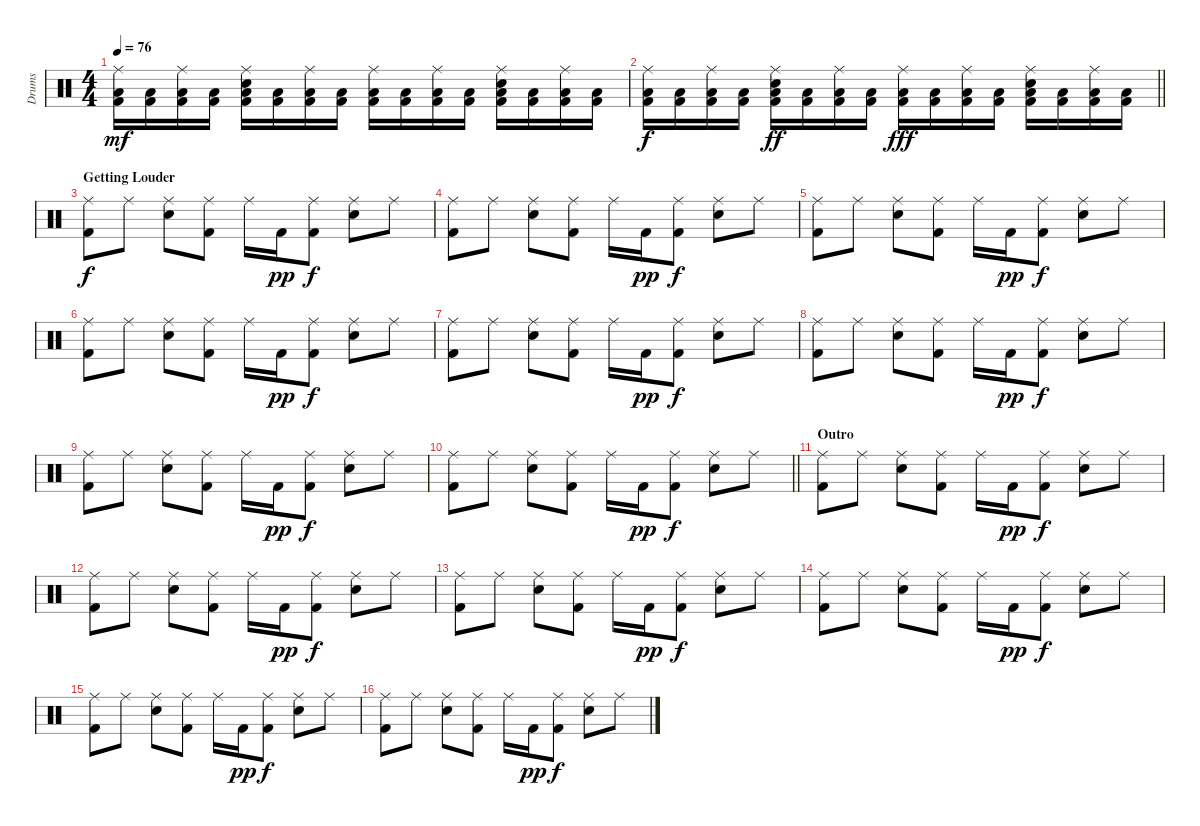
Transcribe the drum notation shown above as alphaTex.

\track ("Drums" "Drums") {instrument percussion}
\staff {score}
\articulation defaults
\ts (4 4)
\tempo 76
\clef neutral
\ks c
("Ride (middle)" "Low Floor Tom (hit)" "Kick (hit) 2").16{dy mf} ("Low Floor Tom (hit)" "Kick (hit) 2").16 ("Ride (middle)" "Low Floor Tom (hit)" "Kick (hit) 2").16 ("Low Floor Tom (hit)" "Kick (hit) 2").16 ("Electric Snare (hit)" "Ride (middle)" "Low Floor Tom (hit)" "Kick (hit) 2").16 ("Low Floor Tom (hit)" "Kick (hit) 2").16 ("Ride (middle)" "Low Floor Tom (hit)" "Kick (hit) 2").16 ("Low Floor Tom (hit)" "Kick (hit) 2").16 ("Ride (middle)" "Low Floor Tom (hit)" "Kick (hit) 2").16 ("Low Floor Tom (hit)" "Kick (hit) 2").16 ("Ride (middle)" "Low Floor Tom (hit)" "Kick (hit) 2").16 ("Low Floor Tom (hit)" "Kick (hit) 2").16 ("Electric Snare (hit)" "Ride (middle)" "Low Floor Tom (hit)" "Kick (hit) 2").16 ("Low Floor Tom (hit)" "Kick (hit) 2").16 ("Ride (middle)" "Low Floor Tom (hit)" "Kick (hit) 2").16 ("Low Floor Tom (hit)" "Kick (hit) 2").16 |
\barLineRight lightlight
("Ride (middle)" "Low Floor Tom (hit)" "Kick (hit) 2").16{dy f} ("Low Floor Tom (hit)" "Kick (hit) 2").16 ("Ride (middle)" "Low Floor Tom (hit)" "Kick (hit) 2").16 ("Low Floor Tom (hit)" "Kick (hit) 2").16 ("Electric Snare (hit)" "Ride (middle)" "Low Floor Tom (hit)" "Kick (hit) 2").16{dy ff} ("Low Floor Tom (hit)" "Kick (hit) 2").16 ("Ride (middle)" "Low Floor Tom (hit)" "Kick (hit) 2").16 ("Low Floor Tom (hit)" "Kick (hit) 2").16 ("Ride (middle)" "Low Floor Tom (hit)" "Kick (hit) 2").16{dy fff} ("Low Floor Tom (hit)" "Kick (hit) 2").16 ("Ride (middle)" "Low Floor Tom (hit)" "Kick (hit) 2").16 ("Low Floor Tom (hit)" "Kick (hit) 2").16 ("Electric Snare (hit)" "Ride (middle)" "Low Floor Tom (hit)" "Kick (hit) 2").16 ("Low Floor Tom (hit)" "Kick (hit) 2").16 ("Ride (middle)" "Low Floor Tom (hit)" "Kick (hit) 2").16 ("Low Floor Tom (hit)" "Kick (hit) 2").16 |
\section ("" "Getting Louder")
("Ride (middle)" "Kick (hit) 2").8{dy f volume 10} "Ride (middle)".8 ("Electric Snare (hit)" "Ride (middle)").8 ("Ride (middle)" "Kick (hit) 2").8 "Ride (middle)".16 "Kick (hit) 2".16{dy pp} ("Ride (middle)" "Kick (hit) 2").8{dy f} ("Electric Snare (hit)" "Ride (middle)").8 "Ride (middle)".8 |
("Ride (middle)" "Kick (hit) 2").8 "Ride (middle)".8 ("Electric Snare (hit)" "Ride (middle)").8 ("Ride (middle)" "Kick (hit) 2").8 "Ride (middle)".16 "Kick (hit) 2".16{dy pp} ("Ride (middle)" "Kick (hit) 2").8{dy f} ("Electric Snare (hit)" "Ride (middle)").8 "Ride (middle)".8 |
("Ride (middle)" "Kick (hit) 2").8 "Ride (middle)".8 ("Electric Snare (hit)" "Ride (middle)").8 ("Ride (middle)" "Kick (hit) 2").8 "Ride (middle)".16 "Kick (hit) 2".16{dy pp} ("Ride (middle)" "Kick (hit) 2").8{dy f} ("Electric Snare (hit)" "Ride (middle)").8 "Ride (middle)".8 |
("Ride (middle)" "Kick (hit) 2").8 "Ride (middle)".8 ("Electric Snare (hit)" "Ride (middle)").8 ("Ride (middle)" "Kick (hit) 2").8 "Ride (middle)".16 "Kick (hit) 2".16{dy pp} ("Ride (middle)" "Kick (hit) 2").8{dy f} ("Electric Snare (hit)" "Ride (middle)").8 "Ride (middle)".8 |
("Ride (middle)" "Kick (hit) 2").8 "Ride (middle)".8 ("Electric Snare (hit)" "Ride (middle)").8 ("Ride (middle)" "Kick (hit) 2").8 "Ride (middle)".16 "Kick (hit) 2".16{dy pp} ("Ride (middle)" "Kick (hit) 2").8{dy f} ("Electric Snare (hit)" "Ride (middle)").8 "Ride (middle)".8 |
("Ride (middle)" "Kick (hit) 2").8 "Ride (middle)".8 ("Electric Snare (hit)" "Ride (middle)").8 ("Ride (middle)" "Kick (hit) 2").8 "Ride (middle)".16 "Kick (hit) 2".16{dy pp} ("Ride (middle)" "Kick (hit) 2").8{dy f} ("Electric Snare (hit)" "Ride (middle)").8 "Ride (middle)".8 |
("Ride (middle)" "Kick (hit) 2").8 "Ride (middle)".8 ("Electric Snare (hit)" "Ride (middle)").8 ("Ride (middle)" "Kick (hit) 2").8 "Ride (middle)".16 "Kick (hit) 2".16{dy pp} ("Ride (middle)" "Kick (hit) 2").8{dy f} ("Electric Snare (hit)" "Ride (middle)").8 "Ride (middle)".8 |
\barLineRight lightlight
("Ride (middle)" "Kick (hit) 2").8 "Ride (middle)".8 ("Electric Snare (hit)" "Ride (middle)").8 ("Ride (middle)" "Kick (hit) 2").8 "Ride (middle)".16 "Kick (hit) 2".16{dy pp} ("Ride (middle)" "Kick (hit) 2").8{dy f} ("Electric Snare (hit)" "Ride (middle)").8 "Ride (middle)".8 |
\section ("" "Outro")
("Ride (middle)" "Kick (hit) 2").8 "Ride (middle)".8 ("Electric Snare (hit)" "Ride (middle)").8 ("Ride (middle)" "Kick (hit) 2").8 "Ride (middle)".16 "Kick (hit) 2".16{dy pp} ("Ride (middle)" "Kick (hit) 2").8{dy f} ("Electric Snare (hit)" "Ride (middle)").8 "Ride (middle)".8 |
("Ride (middle)" "Kick (hit) 2").8 "Ride (middle)".8 ("Electric Snare (hit)" "Ride (middle)").8 ("Ride (middle)" "Kick (hit) 2").8 "Ride (middle)".16 "Kick (hit) 2".16{dy pp} ("Ride (middle)" "Kick (hit) 2").8{dy f} ("Electric Snare (hit)" "Ride (middle)").8 "Ride (middle)".8 |
("Ride (middle)" "Kick (hit) 2").8 "Ride (middle)".8 ("Electric Snare (hit)" "Ride (middle)").8 ("Ride (middle)" "Kick (hit) 2").8 "Ride (middle)".16 "Kick (hit) 2".16{dy pp} ("Ride (middle)" "Kick (hit) 2").8{dy f} ("Electric Snare (hit)" "Ride (middle)").8 "Ride (middle)".8 |
("Ride (middle)" "Kick (hit) 2").8 "Ride (middle)".8 ("Electric Snare (hit)" "Ride (middle)").8 ("Ride (middle)" "Kick (hit) 2").8 "Ride (middle)".16 "Kick (hit) 2".16{dy pp} ("Ride (middle)" "Kick (hit) 2").8{dy f} ("Electric Snare (hit)" "Ride (middle)").8 "Ride (middle)".8 |
("Ride (middle)" "Kick (hit) 2").8 "Ride (middle)".8 ("Electric Snare (hit)" "Ride (middle)").8 ("Ride (middle)" "Kick (hit) 2").8 "Ride (middle)".16 "Kick (hit) 2".16{dy pp} ("Ride (middle)" "Kick (hit) 2").8{dy f} ("Electric Snare (hit)" "Ride (middle)").8 "Ride (middle)".8 |
("Ride (middle)" "Kick (hit) 2").8 "Ride (middle)".8 ("Electric Snare (hit)" "Ride (middle)").8 ("Ride (middle)" "Kick (hit) 2").8 "Ride (middle)".16 "Kick (hit) 2".16{dy pp} ("Ride (middle)" "Kick (hit) 2").8{dy f} ("Electric Snare (hit)" "Ride (middle)").8 "Ride (middle)".8
